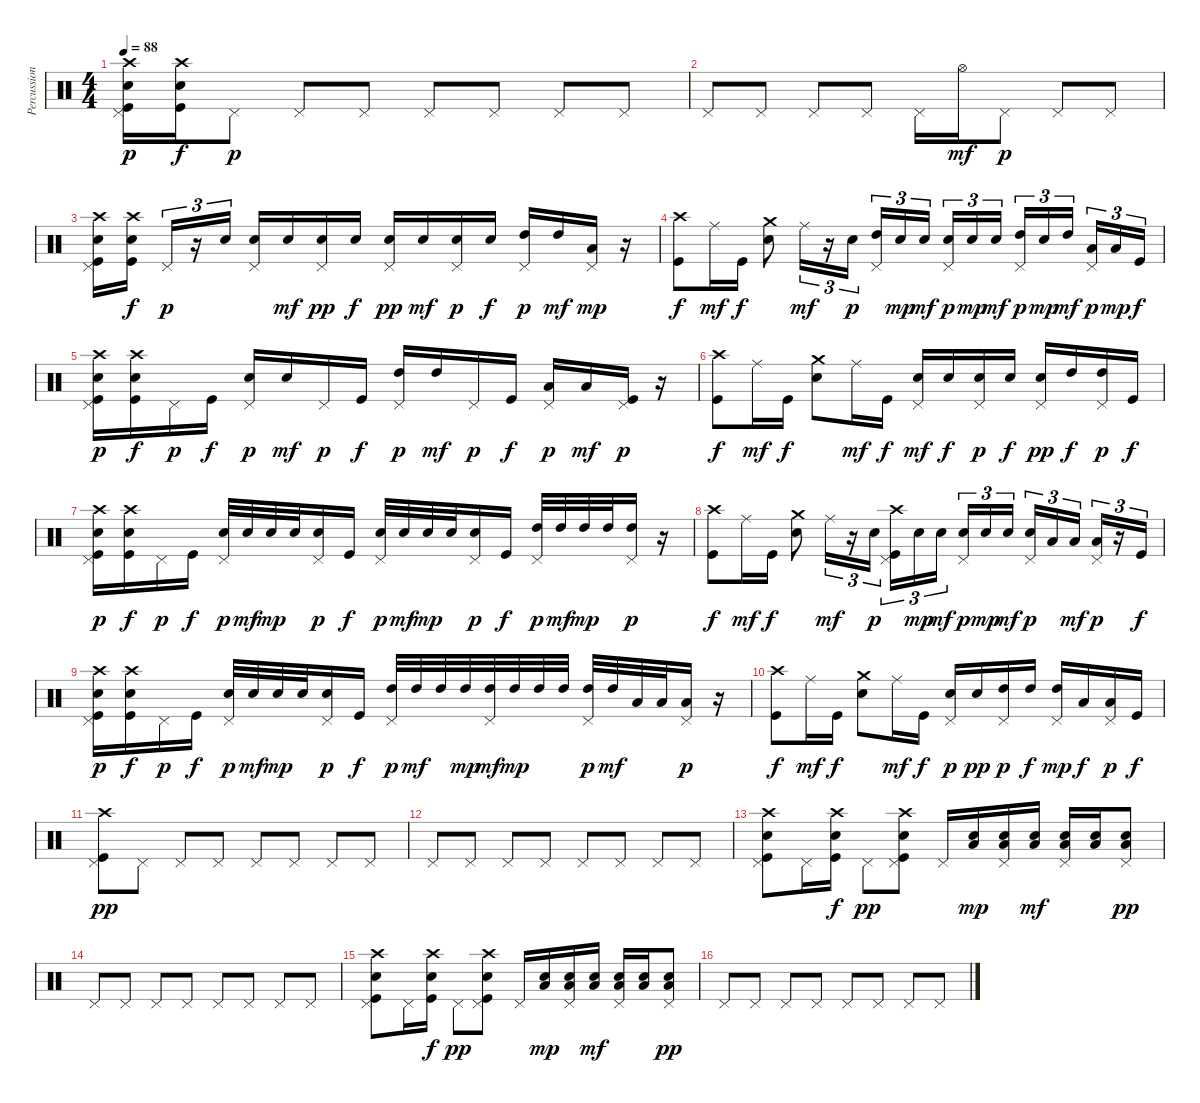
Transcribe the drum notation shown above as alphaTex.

\track ("Percussion" "Percussion") {instrument percussion}
\staff {score}
\articulation defaults
\ts (4 4)
\tempo 88
\clef neutral
\ks c
("Crash high (hit)" "Pedal Hi-Hat (hit)" "Snare (hit) 2" "Kick (hit)").16{dy p} ("Crash high (hit)" "Snare (hit) 2" "Kick (hit)").16{dy f} "Pedal Hi-Hat (hit)".8{dy p} "Pedal Hi-Hat (hit)".8 "Pedal Hi-Hat (hit)".8 "Pedal Hi-Hat (hit)".8 "Pedal Hi-Hat (hit)".8 "Pedal Hi-Hat (hit)".8 "Pedal Hi-Hat (hit)".8 |
"Pedal Hi-Hat (hit)".8 "Pedal Hi-Hat (hit)".8 "Pedal Hi-Hat (hit)".8 "Pedal Hi-Hat (hit)".8 "Pedal Hi-Hat (hit)".16 "Hi-Hat (open)".16{dy mf} "Pedal Hi-Hat (hit)".8{dy p} "Pedal Hi-Hat (hit)".8 "Pedal Hi-Hat (hit)".8 |
("Crash high (hit)" "Pedal Hi-Hat (hit)" "Snare (hit) 2" "Kick (hit)").16 ("Crash high (hit)" "Snare (hit) 2" "Kick (hit)").16{dy f} "Pedal Hi-Hat (hit)".16{tu (3 2) dy p} r.16{tu (3 2)} "Snare (hit) 2".16{tu (3 2)} ("Pedal Hi-Hat (hit)" "Snare (hit) 2").16 "Snare (hit) 2".16{dy mf} ("Pedal Hi-Hat (hit)" "Snare (hit) 2").16{dy pp} "Snare (hit) 2".16{dy f} ("Pedal Hi-Hat (hit)" "Snare (hit) 2").16{dy pp} "Snare (hit) 2".16{dy mf} ("Pedal Hi-Hat (hit)" "Snare (hit) 2").16{dy p} "Snare (hit) 2".16{dy f} ("Pedal Hi-Hat (hit)" "High Tom (hit)").16{dy p} "High Tom (hit)".16{dy mf} ("Pedal Hi-Hat (hit)" "Low Tom (hit)").16{dy mp} r.16 |
("Crash high (hit)" "Kick (hit)").8{dy f} "Ride (middle)".16{dy mf} "Kick (hit)".16{dy f} ("Crash medium (hit)" "Snare (hit) 2").8 "Ride (middle)".16{tu (3 2) dy mf} r.16{tu (3 2)} "Snare (hit) 2".16{tu (3 2) dy p} ("Pedal Hi-Hat (hit)" "High Tom (hit)").16{tu (3 2)} "Snare (hit) 2".16{tu (3 2) dy mp} "Snare (hit) 2".16{tu (3 2) dy mf} ("Pedal Hi-Hat (hit)" "Snare (hit) 2").16{tu (3 2) dy p} "Snare (hit) 2".16{tu (3 2) dy mp} "Snare (hit) 2".16{tu (3 2) dy mf} ("Pedal Hi-Hat (hit)" "High Tom (hit)").16{tu (3 2) dy p} "Snare (hit) 2".16{tu (3 2) dy mp} "High Tom (hit)".16{tu (3 2) dy mf} ("Pedal Hi-Hat (hit)" "Low Tom (hit)").16{tu (3 2) dy p} "Low Tom (hit)".16{tu (3 2) dy mp} "Kick (hit)".16{tu (3 2) dy f} |
("Crash high (hit)" "Pedal Hi-Hat (hit)" "Snare (hit) 2" "Kick (hit)").16{dy p} ("Crash high (hit)" "Snare (hit) 2" "Kick (hit)").16{dy f} "Pedal Hi-Hat (hit)".16{dy p} "Kick (hit)".16{dy f} ("Pedal Hi-Hat (hit)" "Snare (hit) 2").16{dy p} "Snare (hit) 2".16{dy mf} "Pedal Hi-Hat (hit)".16{dy p} "Kick (hit)".16{dy f} ("Pedal Hi-Hat (hit)" "High Tom (hit)").16{dy p} "High Tom (hit)".16{dy mf} "Pedal Hi-Hat (hit)".16{dy p} "Kick (hit)".16{dy f} ("Pedal Hi-Hat (hit)" "Low Tom (hit)").16{dy p} "Low Tom (hit)".16{dy mf} ("Pedal Hi-Hat (hit)" "Kick (hit)").16{dy p} r.16 |
("Crash high (hit)" "Kick (hit)").8{dy f} "Ride (middle)".16{dy mf} "Kick (hit)".16{dy f} ("Crash medium (hit)" "Snare (hit) 2").8 "Ride (middle)".16{dy mf} "Kick (hit)".16{dy f} ("Pedal Hi-Hat (hit)" "Snare (hit) 2").16{dy mf} "Snare (hit) 2".16{dy f} ("Pedal Hi-Hat (hit)" "Snare (hit) 2").16{dy p} "Snare (hit) 2".16{dy f} ("Pedal Hi-Hat (hit)" "Snare (hit) 2").16{dy pp} "High Tom (hit)".16{dy f} ("Pedal Hi-Hat (hit)" "High Tom (hit)").16{dy p} "Kick (hit)".16{dy f} |
("Crash high (hit)" "Pedal Hi-Hat (hit)" "Snare (hit) 2" "Kick (hit)").16{dy p} ("Crash high (hit)" "Snare (hit) 2" "Kick (hit)").16{dy f} "Pedal Hi-Hat (hit)".16{dy p} "Kick (hit)".16{dy f} ("Pedal Hi-Hat (hit)" "Snare (hit) 2").32{dy p} "Snare (hit) 2".32{dy mf} "Snare (hit) 2".32{dy mp} "Snare (hit) 2".32 ("Pedal Hi-Hat (hit)" "Snare (hit) 2").16{dy p} "Kick (hit)".16{dy f} ("Pedal Hi-Hat (hit)" "Snare (hit) 2").32{dy p} "Snare (hit) 2".32{dy mf} "Snare (hit) 2".32{dy mp} "Snare (hit) 2".32 ("Pedal Hi-Hat (hit)" "Snare (hit) 2").16{dy p} "Kick (hit)".16{dy f} ("Pedal Hi-Hat (hit)" "High Tom (hit)").32{dy p} "High Tom (hit)".32{dy mf} "High Tom (hit)".32{dy mp} "High Tom (hit)".32 ("Pedal Hi-Hat (hit)" "High Tom (hit)").16{dy p} r.16 |
("Crash high (hit)" "Kick (hit)").8{dy f} "Ride (middle)".16{dy mf} "Kick (hit)".16{dy f} ("Crash medium (hit)" "Snare (hit) 2").8 "Ride (middle)".16{tu (3 2) dy mf} r.16{tu (3 2)} "Snare (hit) 2".16{tu (3 2) dy p} ("Crash high (hit)" "Pedal Hi-Hat (hit)" "Kick (hit)").16{tu (3 2)} "Snare (hit) 2".16{tu (3 2) dy mp} "Snare (hit) 2".16{tu (3 2) dy mf} ("Pedal Hi-Hat (hit)" "Snare (hit) 2").16{tu (3 2) dy p} "Snare (hit) 2".16{tu (3 2) dy mp} "Snare (hit) 2".16{tu (3 2) dy mf} ("Pedal Hi-Hat (hit)" "Snare (hit) 2").16{tu (3 2) dy p} "Low Tom (hit)".16{tu (3 2)} "Low Tom (hit)".16{tu (3 2) dy mf} ("Pedal Hi-Hat (hit)" "Low Tom (hit)").16{tu (3 2) dy p} r.16{tu (3 2)} "Kick (hit)".16{tu (3 2) dy f} |
("Crash high (hit)" "Pedal Hi-Hat (hit)" "Snare (hit) 2" "Kick (hit)").16{dy p} ("Crash high (hit)" "Snare (hit) 2" "Kick (hit)").16{dy f} "Pedal Hi-Hat (hit)".16{dy p} "Kick (hit)".16{dy f} ("Pedal Hi-Hat (hit)" "Snare (hit) 2").32{dy p} "Snare (hit) 2".32{dy mf} "Snare (hit) 2".32{dy mp} "Snare (hit) 2".32 ("Pedal Hi-Hat (hit)" "Snare (hit) 2").16{dy p} "Kick (hit)".16{dy f} ("Pedal Hi-Hat (hit)" "High Tom (hit)").32{dy p} "High Tom (hit)".32{dy mf} "High Tom (hit)".32 "High Tom (hit)".32{dy mp} ("Pedal Hi-Hat (hit)" "High Tom (hit)").32{dy mf} "High Tom (hit)".32{dy mp} "High Tom (hit)".32 "High Tom (hit)".32 ("Pedal Hi-Hat (hit)" "High Tom (hit)").32{dy p} "High Tom (hit)".32{dy mf} "Low Tom (hit)".32 "Low Tom (hit)".32 ("Pedal Hi-Hat (hit)" "Low Tom (hit)").16{dy p} r.16 |
("Crash high (hit)" "Kick (hit)").8{dy f} "Ride (middle)".16{dy mf} "Kick (hit)".16{dy f} ("Crash medium (hit)" "Snare (hit) 2").8 "Ride (middle)".16{dy mf} "Kick (hit)".16{dy f} ("Pedal Hi-Hat (hit)" "Snare (hit) 2").16{dy p} "Snare (hit) 2".16{dy pp} ("Pedal Hi-Hat (hit)" "High Tom (hit)").16{dy p} "High Tom (hit)".16{dy f} ("Pedal Hi-Hat (hit)" "High Tom (hit)").16{dy mp} "Low Tom (hit)".16{dy f} ("Pedal Hi-Hat (hit)" "Low Tom (hit)").16{dy p} "Kick (hit)".16{dy f} |
("Crash high (hit)" "Pedal Hi-Hat (hit)" "Kick (hit)").8{dy pp} "Pedal Hi-Hat (hit)".8 "Pedal Hi-Hat (hit)".8 "Pedal Hi-Hat (hit)".8 "Pedal Hi-Hat (hit)".8 "Pedal Hi-Hat (hit)".8 "Pedal Hi-Hat (hit)".8 "Pedal Hi-Hat (hit)".8 |
"Pedal Hi-Hat (hit)".8 "Pedal Hi-Hat (hit)".8 "Pedal Hi-Hat (hit)".8 "Pedal Hi-Hat (hit)".8 "Pedal Hi-Hat (hit)".8 "Pedal Hi-Hat (hit)".8 "Pedal Hi-Hat (hit)".8 "Pedal Hi-Hat (hit)".8 |
("Crash high (hit)" "Pedal Hi-Hat (hit)" "Snare (hit) 2" "Kick (hit)").8 "Pedal Hi-Hat (hit)".16 ("Crash high (hit)" "Snare (hit) 2" "Kick (hit)").16{dy f} "Pedal Hi-Hat (hit)".8{dy pp} ("Crash high (hit)" "Pedal Hi-Hat (hit)" "Snare (hit) 2" "Kick (hit)").8 "Pedal Hi-Hat (hit)".16 ("Low Tom (hit)" "Snare (hit) 2").16{dy mp} ("Pedal Hi-Hat (hit)" "Low Tom (hit)" "Snare (hit) 2").16 ("Low Tom (hit)" "Snare (hit) 2").16{dy mf} ("Pedal Hi-Hat (hit)" "Low Tom (hit)" "Snare (hit) 2").16 ("Low Tom (hit)" "Snare (hit) 2").16 ("Pedal Hi-Hat (hit)" "Low Tom (hit)" "Snare (hit) 2").8{dy pp} |
"Pedal Hi-Hat (hit)".8 "Pedal Hi-Hat (hit)".8 "Pedal Hi-Hat (hit)".8 "Pedal Hi-Hat (hit)".8 "Pedal Hi-Hat (hit)".8 "Pedal Hi-Hat (hit)".8 "Pedal Hi-Hat (hit)".8 "Pedal Hi-Hat (hit)".8 |
("Crash high (hit)" "Pedal Hi-Hat (hit)" "Snare (hit) 2" "Kick (hit)").8 "Pedal Hi-Hat (hit)".16 ("Crash high (hit)" "Snare (hit) 2" "Kick (hit)").16{dy f} "Pedal Hi-Hat (hit)".8{dy pp} ("Crash high (hit)" "Pedal Hi-Hat (hit)" "Snare (hit) 2" "Kick (hit)").8 "Pedal Hi-Hat (hit)".16 ("Low Tom (hit)" "Snare (hit) 2").16{dy mp} ("Pedal Hi-Hat (hit)" "Low Tom (hit)" "Snare (hit) 2").16 ("Low Tom (hit)" "Snare (hit) 2").16{dy mf} ("Pedal Hi-Hat (hit)" "Low Tom (hit)" "Snare (hit) 2").16 ("Low Tom (hit)" "Snare (hit) 2").16 ("Pedal Hi-Hat (hit)" "Low Tom (hit)" "Snare (hit) 2").8{dy pp} |
"Pedal Hi-Hat (hit)".8 "Pedal Hi-Hat (hit)".8 "Pedal Hi-Hat (hit)".8 "Pedal Hi-Hat (hit)".8 "Pedal Hi-Hat (hit)".8 "Pedal Hi-Hat (hit)".8 "Pedal Hi-Hat (hit)".8 "Pedal Hi-Hat (hit)".8
